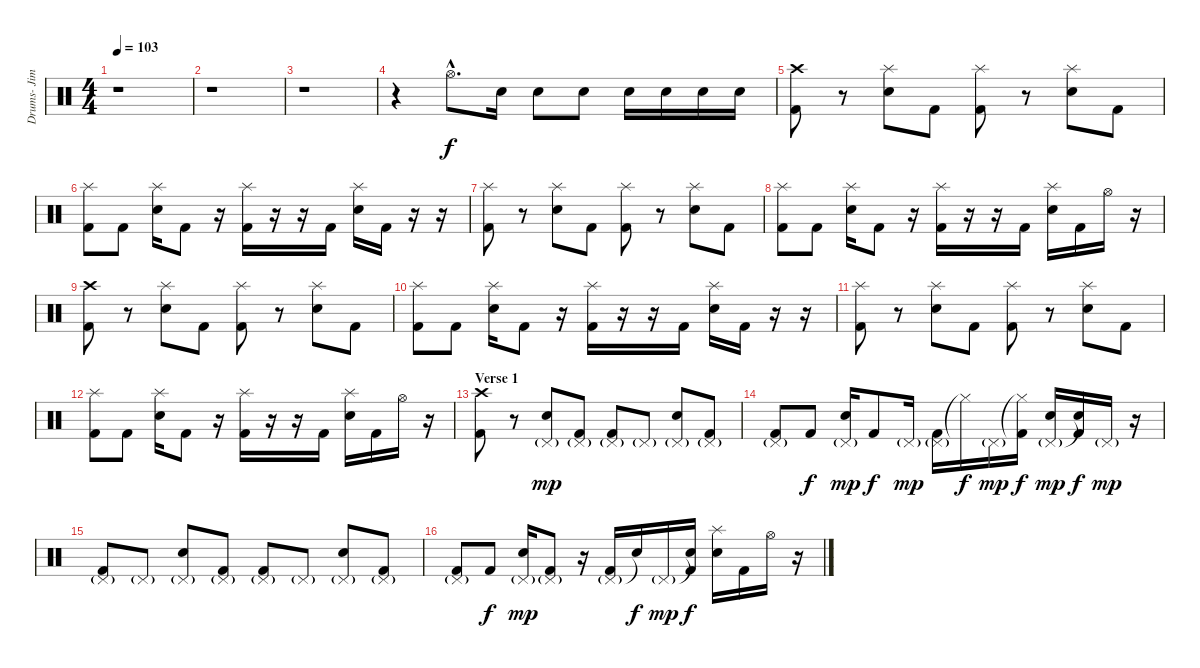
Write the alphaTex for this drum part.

\track ("Drums- Jimmy Bower" "Drums- Jim") {instrument percussion}
\staff {score}
\articulation defaults
\ts (4 4)
\tempo 103
\clef neutral
\ks c
r.1{dy f} |
r.1 |
r.1 |
r.4 "Hi-Hat (open)"{hac}.8{d} "Electric Snare (hit)".16 "Electric Snare (hit)".8 "Electric Snare (hit)".8 "Electric Snare (hit)".16 "Electric Snare (hit)".16 "Electric Snare (hit)".16 "Electric Snare (hit)".16 |
("Crash high (hit)" "Kick (hit) 2").8 r.8 ("Splash (hit)" "Electric Snare (hit)").8 "Kick (hit) 2".8 ("Splash (hit)" "Kick (hit) 2").8 r.8 ("Splash (hit)" "Electric Snare (hit)").8 "Kick (hit) 2".8 |
("Splash (hit)" "Kick (hit) 2").8 "Kick (hit) 2".8 ("Splash (hit)" "Electric Snare (hit)").16 "Kick (hit) 2".8 r.16 ("Splash (hit)" "Kick (hit) 2").16 r.16 r.16 "Kick (hit) 2".16 ("Splash (hit)" "Electric Snare (hit)").16 "Kick (hit) 2".16 r.16 r.16 |
("Splash (hit)" "Kick (hit) 2").8 r.8 ("Splash (hit)" "Electric Snare (hit)").8 "Kick (hit) 2".8 ("Splash (hit)" "Kick (hit) 2").8 r.8 ("Splash (hit)" "Electric Snare (hit)").8 "Kick (hit) 2".8 |
("Splash (hit)" "Kick (hit) 2").8 "Kick (hit) 2".8 ("Splash (hit)" "Electric Snare (hit)").16 "Kick (hit) 2".8 r.16 ("Splash (hit)" "Kick (hit) 2").16 r.16 r.16 "Kick (hit) 2".16 ("Splash (hit)" "Electric Snare (hit)").16 "Kick (hit) 2".16 "Hi-Hat (open)".16 r.16 |
("Crash high (hit)" "Kick (hit) 2").8 r.8 ("Splash (hit)" "Electric Snare (hit)").8 "Kick (hit) 2".8 ("Splash (hit)" "Kick (hit) 2").8 r.8 ("Splash (hit)" "Electric Snare (hit)").8 "Kick (hit) 2".8 |
("Splash (hit)" "Kick (hit) 2").8 "Kick (hit) 2".8 ("Splash (hit)" "Electric Snare (hit)").16 "Kick (hit) 2".8 r.16 ("Splash (hit)" "Kick (hit) 2").16 r.16 r.16 "Kick (hit) 2".16 ("Splash (hit)" "Electric Snare (hit)").16 "Kick (hit) 2".16 r.16 r.16 |
("Splash (hit)" "Kick (hit) 2").8 r.8 ("Splash (hit)" "Electric Snare (hit)").8 "Kick (hit) 2".8 ("Splash (hit)" "Kick (hit) 2").8 r.8 ("Splash (hit)" "Electric Snare (hit)").8 "Kick (hit) 2".8 |
("Splash (hit)" "Kick (hit) 2").8 "Kick (hit) 2".8 ("Splash (hit)" "Electric Snare (hit)").16 "Kick (hit) 2".8 r.16 ("Splash (hit)" "Kick (hit) 2").16 r.16 r.16 "Kick (hit) 2".16 ("Splash (hit)" "Electric Snare (hit)").16 "Kick (hit) 2".16 "Hi-Hat (open)".16 r.16 |
\section ("" "Verse 1")
("Crash high (hit)" "Kick (hit) 2").8 r.8 ("Pedal Hi-Hat (hit)"{g} "Electric Snare (hit)").8{dy mp} ("Pedal Hi-Hat (hit)"{g} "Kick (hit) 2").8 ("Pedal Hi-Hat (hit)"{g} "Kick (hit) 2").8 "Pedal Hi-Hat (hit)"{g}.8 ("Pedal Hi-Hat (hit)"{g} "Electric Snare (hit)").8 ("Pedal Hi-Hat (hit)"{g} "Kick (hit) 2").8 |
("Pedal Hi-Hat (hit)"{g} "Kick (hit) 2").8 "Kick (hit) 2".8{dy f} ("Pedal Hi-Hat (hit)"{g} "Electric Snare (hit)").16{dy mp} "Kick (hit) 2".8{dy f} "Pedal Hi-Hat (hit)"{g}.16{dy mp} ("Pedal Hi-Hat (hit)"{g} "Kick (hit) 2").16 "Hi-Hat (closed)"{t}.16{dy f} "Pedal Hi-Hat (hit)"{g}.16{dy mp} ("Hi-Hat (closed)"{t} "Kick (hit) 2").16{dy f} ("Pedal Hi-Hat (hit)"{g} "Electric Snare (hit)").16{dy mp} ("Snare (hit)"{t} "Kick (hit) 2").16{dy f} "Pedal Hi-Hat (hit)"{g}.16{dy mp} r.16 |
("Pedal Hi-Hat (hit)"{g} "Kick (hit) 2").8 "Pedal Hi-Hat (hit)"{g}.8 ("Pedal Hi-Hat (hit)"{g} "Electric Snare (hit)").8 ("Pedal Hi-Hat (hit)"{g} "Kick (hit) 2").8 ("Pedal Hi-Hat (hit)"{g} "Kick (hit) 2").8 "Pedal Hi-Hat (hit)"{g}.8 ("Pedal Hi-Hat (hit)"{g} "Electric Snare (hit)").8 ("Pedal Hi-Hat (hit)"{g} "Kick (hit) 2").8 |
("Pedal Hi-Hat (hit)"{g} "Kick (hit) 2").8 "Kick (hit) 2".8{dy f} ("Pedal Hi-Hat (hit)"{g} "Electric Snare (hit)").16{dy mp} ("Pedal Hi-Hat (hit)"{g} "Kick (hit) 2").8 r.16 ("Pedal Hi-Hat (hit)"{g} "Kick (hit) 2").16 "Snare (hit)"{t}.16{dy f} "Pedal Hi-Hat (hit)"{g}.16{dy mp} ("Snare (hit)"{t} "Kick (hit) 2").16{dy f} ("Splash (hit)" "Electric Snare (hit)").16 "Kick (hit) 2".16 "Hi-Hat (open)".16 r.16
